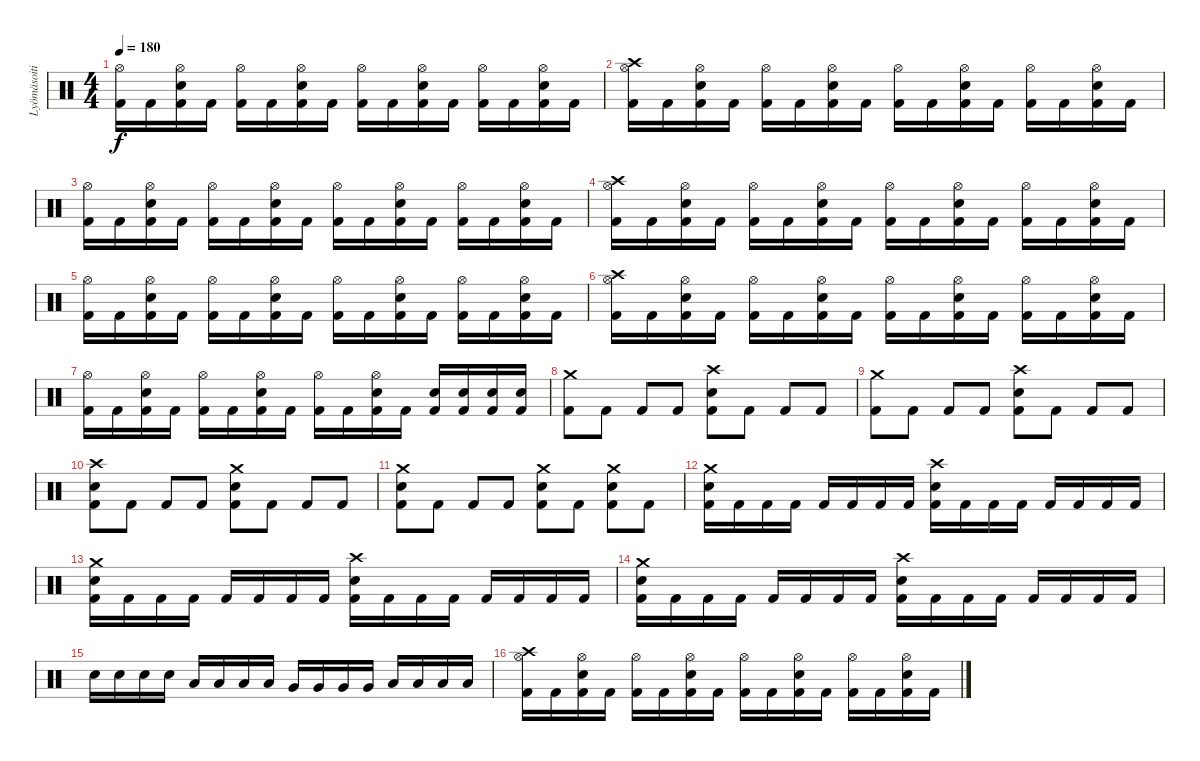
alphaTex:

\track ("Lyömäsoitin" "Lyömäsoiti") {instrument percussion}
\staff {score}
\articulation defaults
\ts (4 4)
\tempo 180
\clef neutral
\ks c
("Kick (hit) 2" "Hi-Hat (open)").16{dy f} "Kick (hit) 2".16 ("Kick (hit) 2" "Snare (hit) 2" "Hi-Hat (open)").16 "Kick (hit) 2".16 ("Kick (hit) 2" "Hi-Hat (open)").16 "Kick (hit) 2".16 ("Kick (hit) 2" "Snare (hit) 2" "Hi-Hat (open)").16 "Kick (hit) 2".16 ("Kick (hit) 2" "Hi-Hat (open)").16 "Kick (hit) 2".16 ("Kick (hit) 2" "Snare (hit) 2" "Hi-Hat (open)").16 "Kick (hit) 2".16 ("Kick (hit) 2" "Hi-Hat (open)").16 "Kick (hit) 2".16 ("Kick (hit) 2" "Snare (hit) 2" "Hi-Hat (open)").16 "Kick (hit) 2".16 |
("Kick (hit) 2" "Crash high (hit)" "Hi-Hat (open)").16 "Kick (hit) 2".16 ("Kick (hit) 2" "Snare (hit) 2" "Hi-Hat (open)").16 "Kick (hit) 2".16 ("Kick (hit) 2" "Hi-Hat (open)").16 "Kick (hit) 2".16 ("Kick (hit) 2" "Snare (hit) 2" "Hi-Hat (open)").16 "Kick (hit) 2".16 ("Kick (hit) 2" "Hi-Hat (open)").16 "Kick (hit) 2".16 ("Kick (hit) 2" "Snare (hit) 2" "Hi-Hat (open)").16 "Kick (hit) 2".16 ("Kick (hit) 2" "Hi-Hat (open)").16 "Kick (hit) 2".16 ("Kick (hit) 2" "Snare (hit) 2" "Hi-Hat (open)").16 "Kick (hit) 2".16 |
("Kick (hit) 2" "Hi-Hat (open)").16 "Kick (hit) 2".16 ("Kick (hit) 2" "Snare (hit) 2" "Hi-Hat (open)").16 "Kick (hit) 2".16 ("Kick (hit) 2" "Hi-Hat (open)").16 "Kick (hit) 2".16 ("Kick (hit) 2" "Snare (hit) 2" "Hi-Hat (open)").16 "Kick (hit) 2".16 ("Kick (hit) 2" "Hi-Hat (open)").16 "Kick (hit) 2".16 ("Kick (hit) 2" "Snare (hit) 2" "Hi-Hat (open)").16 "Kick (hit) 2".16 ("Kick (hit) 2" "Hi-Hat (open)").16 "Kick (hit) 2".16 ("Kick (hit) 2" "Snare (hit) 2" "Hi-Hat (open)").16 "Kick (hit) 2".16 |
("Kick (hit) 2" "Crash high (hit)" "Hi-Hat (open)").16 "Kick (hit) 2".16 ("Kick (hit) 2" "Snare (hit) 2" "Hi-Hat (open)").16 "Kick (hit) 2".16 ("Kick (hit) 2" "Hi-Hat (open)").16 "Kick (hit) 2".16 ("Kick (hit) 2" "Snare (hit) 2" "Hi-Hat (open)").16 "Kick (hit) 2".16 ("Kick (hit) 2" "Hi-Hat (open)").16 "Kick (hit) 2".16 ("Kick (hit) 2" "Snare (hit) 2" "Hi-Hat (open)").16 "Kick (hit) 2".16 ("Kick (hit) 2" "Hi-Hat (open)").16 "Kick (hit) 2".16 ("Kick (hit) 2" "Snare (hit) 2" "Hi-Hat (open)").16 "Kick (hit) 2".16 |
("Kick (hit) 2" "Hi-Hat (open)").16 "Kick (hit) 2".16 ("Kick (hit) 2" "Snare (hit) 2" "Hi-Hat (open)").16 "Kick (hit) 2".16 ("Kick (hit) 2" "Hi-Hat (open)").16 "Kick (hit) 2".16 ("Kick (hit) 2" "Snare (hit) 2" "Hi-Hat (open)").16 "Kick (hit) 2".16 ("Kick (hit) 2" "Hi-Hat (open)").16 "Kick (hit) 2".16 ("Kick (hit) 2" "Snare (hit) 2" "Hi-Hat (open)").16 "Kick (hit) 2".16 ("Kick (hit) 2" "Hi-Hat (open)").16 "Kick (hit) 2".16 ("Kick (hit) 2" "Snare (hit) 2" "Hi-Hat (open)").16 "Kick (hit) 2".16 |
("Kick (hit) 2" "Crash high (hit)" "Hi-Hat (open)").16 "Kick (hit) 2".16 ("Kick (hit) 2" "Snare (hit) 2" "Hi-Hat (open)").16 "Kick (hit) 2".16 ("Kick (hit) 2" "Hi-Hat (open)").16 "Kick (hit) 2".16 ("Kick (hit) 2" "Snare (hit) 2" "Hi-Hat (open)").16 "Kick (hit) 2".16 ("Kick (hit) 2" "Hi-Hat (open)").16 "Kick (hit) 2".16 ("Kick (hit) 2" "Snare (hit) 2" "Hi-Hat (open)").16 "Kick (hit) 2".16 ("Kick (hit) 2" "Hi-Hat (open)").16 "Kick (hit) 2".16 ("Kick (hit) 2" "Snare (hit) 2" "Hi-Hat (open)").16 "Kick (hit) 2".16 |
("Kick (hit) 2" "Hi-Hat (open)").16 "Kick (hit) 2".16 ("Kick (hit) 2" "Snare (hit) 2" "Hi-Hat (open)").16 "Kick (hit) 2".16 ("Kick (hit) 2" "Hi-Hat (open)").16 "Kick (hit) 2".16 ("Kick (hit) 2" "Snare (hit) 2" "Hi-Hat (open)").16 "Kick (hit) 2".16 ("Kick (hit) 2" "Hi-Hat (open)").16 "Kick (hit) 2".16 ("Kick (hit) 2" "Snare (hit) 2" "Hi-Hat (open)").16 "Kick (hit) 2".16 ("Kick (hit) 2" "Snare (hit) 2").16 ("Kick (hit) 2" "Snare (hit) 2").16 ("Kick (hit) 2" "Snare (hit) 2").16 ("Kick (hit) 2" "Snare (hit) 2").16 |
("Kick (hit) 2" "Crash medium (hit)").8 "Kick (hit) 2".8 "Kick (hit) 2".8 "Kick (hit) 2".8 ("Kick (hit) 2" "Snare (hit) 2" "Crash high (hit)").8 "Kick (hit) 2".8 "Kick (hit) 2".8 "Kick (hit) 2".8 |
("Kick (hit) 2" "Crash medium (hit)").8 "Kick (hit) 2".8 "Kick (hit) 2".8 "Kick (hit) 2".8 ("Kick (hit) 2" "Snare (hit) 2" "Crash high (hit)").8 "Kick (hit) 2".8 "Kick (hit) 2".8 "Kick (hit) 2".8 |
("Kick (hit) 2" "Snare (hit) 2" "Crash high (hit)").8 "Kick (hit) 2".8 "Kick (hit) 2".8 "Kick (hit) 2".8 ("Kick (hit) 2" "Snare (hit) 2" "Crash medium (hit)").8 "Kick (hit) 2".8 "Kick (hit) 2".8 "Kick (hit) 2".8 |
("Kick (hit) 2" "Snare (hit) 2" "Crash medium (hit)").8 "Kick (hit) 2".8 "Kick (hit) 2".8 "Kick (hit) 2".8 ("Kick (hit) 2" "Snare (hit) 2" "Crash medium (hit)").8 "Kick (hit) 2".8 ("Kick (hit) 2" "Snare (hit) 2" "Crash medium (hit)").8 "Kick (hit) 2".8 |
("Kick (hit) 2" "Snare (hit) 2" "Crash medium (hit)").16 "Kick (hit) 2".16 "Kick (hit) 2".16 "Kick (hit) 2".16 "Kick (hit) 2".16 "Kick (hit) 2".16 "Kick (hit) 2".16 "Kick (hit) 2".16 ("Kick (hit) 2" "Snare (hit) 2" "Crash high (hit)").16 "Kick (hit) 2".16 "Kick (hit) 2".16 "Kick (hit) 2".16 "Kick (hit) 2".16 "Kick (hit) 2".16 "Kick (hit) 2".16 "Kick (hit) 2".16 |
("Kick (hit) 2" "Snare (hit) 2" "Crash medium (hit)").16 "Kick (hit) 2".16 "Kick (hit) 2".16 "Kick (hit) 2".16 "Kick (hit) 2".16 "Kick (hit) 2".16 "Kick (hit) 2".16 "Kick (hit) 2".16 ("Kick (hit) 2" "Snare (hit) 2" "Crash high (hit)").16 "Kick (hit) 2".16 "Kick (hit) 2".16 "Kick (hit) 2".16 "Kick (hit) 2".16 "Kick (hit) 2".16 "Kick (hit) 2".16 "Kick (hit) 2".16 |
("Kick (hit) 2" "Snare (hit) 2" "Crash medium (hit)").16 "Kick (hit) 2".16 "Kick (hit) 2".16 "Kick (hit) 2".16 "Kick (hit) 2".16 "Kick (hit) 2".16 "Kick (hit) 2".16 "Kick (hit) 2".16 ("Kick (hit) 2" "Snare (hit) 2" "Crash high (hit)").16 "Kick (hit) 2".16 "Kick (hit) 2".16 "Kick (hit) 2".16 "Kick (hit) 2".16 "Kick (hit) 2".16 "Kick (hit) 2".16 "Kick (hit) 2".16 |
"Snare (hit) 2".16 "Snare (hit) 2".16 "Snare (hit) 2".16 "Snare (hit) 2".16 "Low Tom (hit)".16 "Low Tom (hit)".16 "Low Tom (hit)".16 "Low Tom (hit)".16 "Very Low Tom (hit)".16 "Very Low Tom (hit)".16 "Very Low Tom (hit)".16 "Very Low Tom (hit)".16 "Low Floor Tom (hit)".16 "Low Floor Tom (hit)".16 "Low Floor Tom (hit)".16 "Low Floor Tom (hit)".16 |
("Kick (hit) 2" "Crash high (hit)" "Hi-Hat (open)").16 "Kick (hit) 2".16 ("Kick (hit) 2" "Snare (hit) 2" "Hi-Hat (open)").16 "Kick (hit) 2".16 ("Kick (hit) 2" "Hi-Hat (open)").16 "Kick (hit) 2".16 ("Kick (hit) 2" "Snare (hit) 2" "Hi-Hat (open)").16 "Kick (hit) 2".16 ("Kick (hit) 2" "Hi-Hat (open)").16 "Kick (hit) 2".16 ("Kick (hit) 2" "Snare (hit) 2" "Hi-Hat (open)").16 "Kick (hit) 2".16 ("Kick (hit) 2" "Hi-Hat (open)").16 "Kick (hit) 2".16 ("Kick (hit) 2" "Snare (hit) 2" "Hi-Hat (open)").16 "Kick (hit) 2".16
